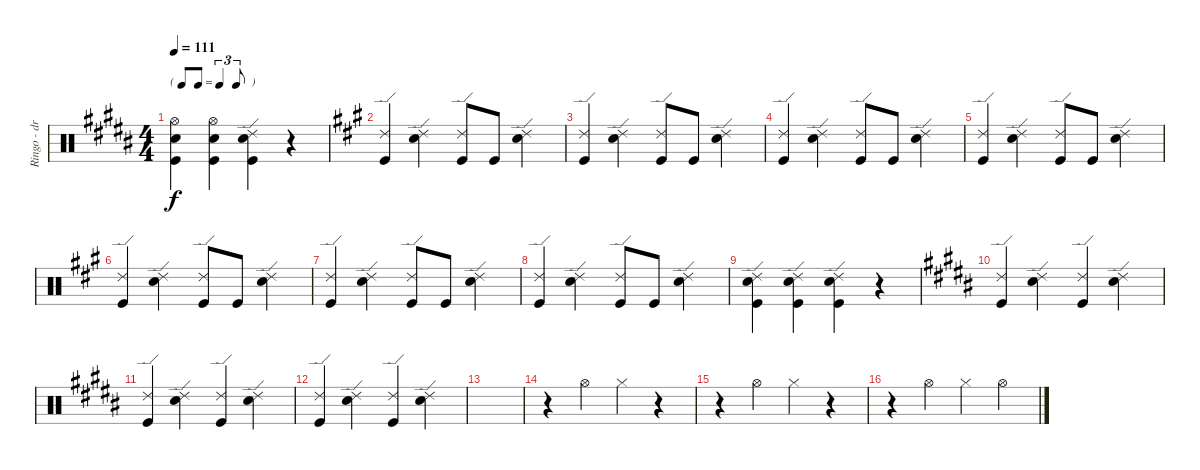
\track ("Ringo - drums" "Ringo - dr") {instrument percussion}
\staff {score}
\articulation defaults
\ts (4 4)
\tf triplet8th
\tempo 111
\clef neutral
\ks b
("Hi-Hat (open)" "Snare (hit) 2" "Kick (hit)").4{dy f} ("Hi-Hat (open)" "Snare (hit) 2" "Kick (hit)").4 ("Ride (edge) 2" "Snare (hit) 2" "Kick (hit)").4 r.4 |
\ks a
("Ride (edge) 2" "Kick (hit)").4 ("Ride (edge) 2" "Snare (hit) 2").4 ("Ride (edge) 2" "Kick (hit)").8 "Kick (hit)".8 ("Ride (edge) 2" "Snare (hit) 2").4 |
("Ride (edge) 2" "Kick (hit)").4 ("Ride (edge) 2" "Snare (hit) 2").4 ("Ride (edge) 2" "Kick (hit)").8 "Kick (hit)".8 ("Ride (edge) 2" "Snare (hit) 2").4 |
("Ride (edge) 2" "Kick (hit)").4 ("Ride (edge) 2" "Snare (hit) 2").4 ("Ride (edge) 2" "Kick (hit)").8 "Kick (hit)".8 ("Ride (edge) 2" "Snare (hit) 2").4 |
("Ride (edge) 2" "Kick (hit)").4 ("Ride (edge) 2" "Snare (hit) 2").4 ("Ride (edge) 2" "Kick (hit)").8 "Kick (hit)".8 ("Ride (edge) 2" "Snare (hit) 2").4 |
("Ride (edge) 2" "Kick (hit)").4 ("Ride (edge) 2" "Snare (hit) 2").4 ("Ride (edge) 2" "Kick (hit)").8 "Kick (hit)".8 ("Ride (edge) 2" "Snare (hit) 2").4 |
("Ride (edge) 2" "Kick (hit)").4 ("Ride (edge) 2" "Snare (hit) 2").4 ("Ride (edge) 2" "Kick (hit)").8 "Kick (hit)".8 ("Ride (edge) 2" "Snare (hit) 2").4 |
("Ride (edge) 2" "Kick (hit)").4 ("Ride (edge) 2" "Snare (hit) 2").4 ("Ride (edge) 2" "Kick (hit)").8 "Kick (hit)".8 ("Ride (edge) 2" "Snare (hit) 2").4 |
("Ride (edge) 2" "Snare (hit) 2" "Kick (hit)").4 ("Ride (edge) 2" "Snare (hit) 2" "Kick (hit)").4 ("Ride (edge) 2" "Snare (hit) 2" "Kick (hit)").4 r.4 |
\ks b
("Ride (edge) 2" "Kick (hit)").4 ("Ride (edge) 2" "Snare (hit) 2").4 ("Ride (edge) 2" "Kick (hit)").4 ("Ride (edge) 2" "Snare (hit) 2").4 |
("Ride (edge) 2" "Kick (hit)").4 ("Ride (edge) 2" "Snare (hit) 2").4 ("Ride (edge) 2" "Kick (hit)").4 ("Ride (edge) 2" "Snare (hit) 2").4 |
("Ride (edge) 2" "Kick (hit)").4 ("Ride (edge) 2" "Snare (hit) 2").4 ("Ride (edge) 2" "Kick (hit)").4 ("Ride (edge) 2" "Snare (hit) 2").4 |
|
r.4 "Hi-Hat (open)".4 "Hi-Hat (closed)".4 r.4 |
r.4 "Hi-Hat (open)".4 "Hi-Hat (closed)".4 r.4 |
r.4 "Hi-Hat (open)".4 "Hi-Hat (closed)".4 "Hi-Hat (open)".4
